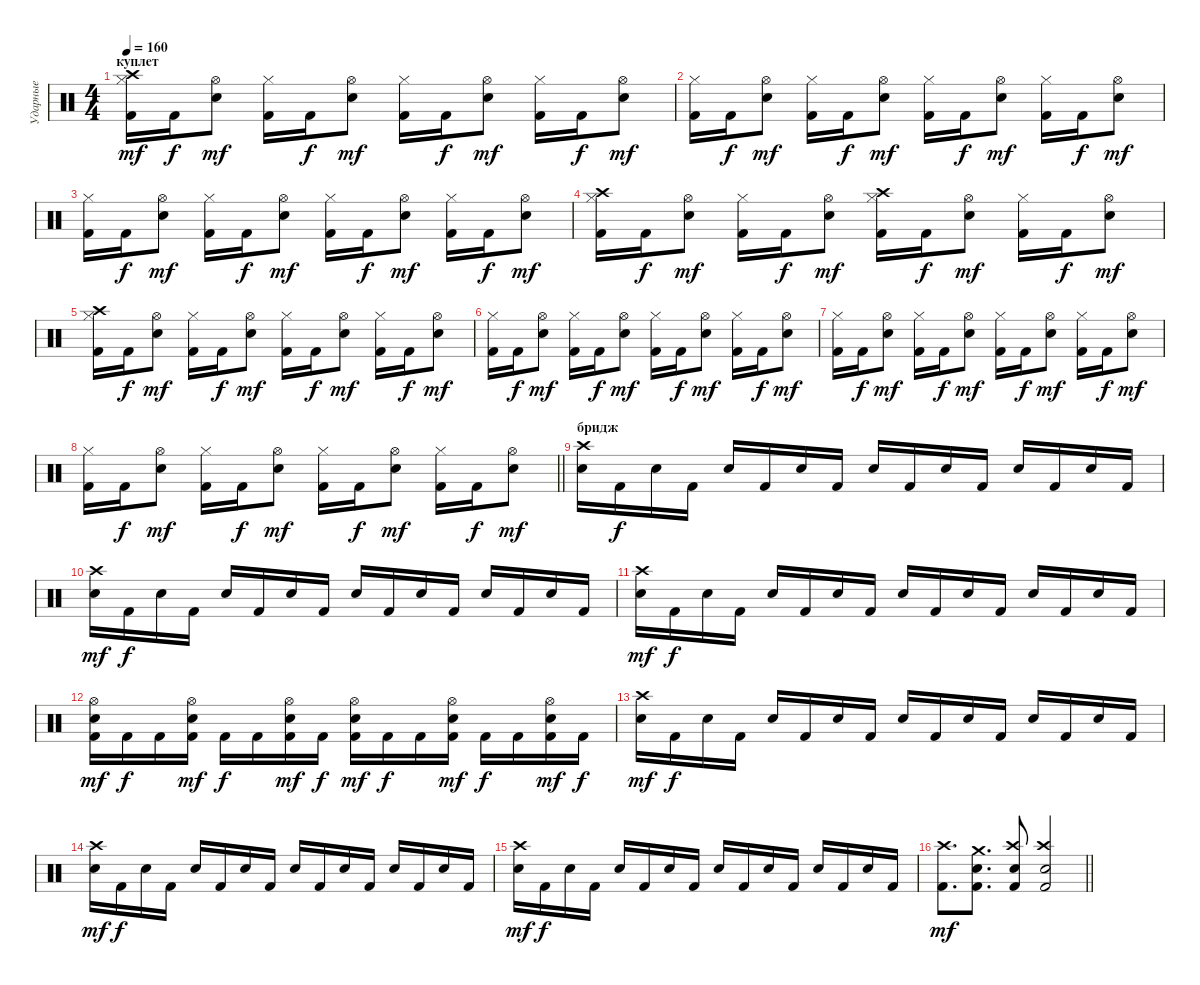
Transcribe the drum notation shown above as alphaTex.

\track ("Ударные" "Ударные") {instrument percussion}
\staff {score}
\articulation defaults
\ts (4 4)
\section ("" "куплет")
\tempo 160
\clef neutral
\ks c
("Kick (hit) 2" "Hi-Hat (closed)" "Crash high (hit)").16{dy mf} "Kick (hit) 2".16{dy f} ("Snare (hit) 2" "Hi-Hat (open)").8{dy mf} ("Kick (hit) 2" "Hi-Hat (closed)").16 "Kick (hit) 2".16{dy f} ("Snare (hit) 2" "Hi-Hat (open)").8{dy mf} ("Kick (hit) 2" "Hi-Hat (closed)").16 "Kick (hit) 2".16{dy f} ("Snare (hit) 2" "Hi-Hat (open)").8{dy mf} ("Kick (hit) 2" "Hi-Hat (closed)").16 "Kick (hit) 2".16{dy f} ("Snare (hit) 2" "Hi-Hat (open)").8{dy mf} |
("Kick (hit) 2" "Hi-Hat (closed)").16 "Kick (hit) 2".16{dy f} ("Snare (hit) 2" "Hi-Hat (open)").8{dy mf} ("Kick (hit) 2" "Hi-Hat (closed)").16 "Kick (hit) 2".16{dy f} ("Snare (hit) 2" "Hi-Hat (open)").8{dy mf} ("Kick (hit) 2" "Hi-Hat (closed)").16 "Kick (hit) 2".16{dy f} ("Snare (hit) 2" "Hi-Hat (open)").8{dy mf} ("Kick (hit) 2" "Hi-Hat (closed)").16 "Kick (hit) 2".16{dy f} ("Snare (hit) 2" "Hi-Hat (open)").8{dy mf} |
("Kick (hit) 2" "Hi-Hat (closed)").16 "Kick (hit) 2".16{dy f} ("Snare (hit) 2" "Hi-Hat (open)").8{dy mf} ("Kick (hit) 2" "Hi-Hat (closed)").16 "Kick (hit) 2".16{dy f} ("Snare (hit) 2" "Hi-Hat (open)").8{dy mf} ("Kick (hit) 2" "Hi-Hat (closed)").16 "Kick (hit) 2".16{dy f} ("Snare (hit) 2" "Hi-Hat (open)").8{dy mf} ("Kick (hit) 2" "Hi-Hat (closed)").16 "Kick (hit) 2".16{dy f} ("Snare (hit) 2" "Hi-Hat (open)").8{dy mf} |
("Kick (hit) 2" "Hi-Hat (closed)" "Crash high (hit)").16 "Kick (hit) 2".16{dy f} ("Snare (hit) 2" "Hi-Hat (open)").8{dy mf} ("Kick (hit) 2" "Hi-Hat (closed)").16 "Kick (hit) 2".16{dy f} ("Snare (hit) 2" "Hi-Hat (open)").8{dy mf} ("Kick (hit) 2" "Hi-Hat (closed)" "Crash high (hit)").16 "Kick (hit) 2".16{dy f} ("Snare (hit) 2" "Hi-Hat (open)").8{dy mf} ("Kick (hit) 2" "Hi-Hat (closed)").16 "Kick (hit) 2".16{dy f} ("Snare (hit) 2" "Hi-Hat (open)").8{dy mf} |
("Kick (hit) 2" "Hi-Hat (closed)" "Crash high (hit)").16 "Kick (hit) 2".16{dy f} ("Snare (hit) 2" "Hi-Hat (open)").8{dy mf} ("Kick (hit) 2" "Hi-Hat (closed)").16 "Kick (hit) 2".16{dy f} ("Snare (hit) 2" "Hi-Hat (open)").8{dy mf} ("Kick (hit) 2" "Hi-Hat (closed)").16 "Kick (hit) 2".16{dy f} ("Snare (hit) 2" "Hi-Hat (open)").8{dy mf} ("Kick (hit) 2" "Hi-Hat (closed)").16 "Kick (hit) 2".16{dy f} ("Snare (hit) 2" "Hi-Hat (open)").8{dy mf} |
("Kick (hit) 2" "Hi-Hat (closed)").16 "Kick (hit) 2".16{dy f} ("Snare (hit) 2" "Hi-Hat (open)").8{dy mf} ("Kick (hit) 2" "Hi-Hat (closed)").16 "Kick (hit) 2".16{dy f} ("Snare (hit) 2" "Hi-Hat (open)").8{dy mf} ("Kick (hit) 2" "Hi-Hat (closed)").16 "Kick (hit) 2".16{dy f} ("Snare (hit) 2" "Hi-Hat (open)").8{dy mf} ("Kick (hit) 2" "Hi-Hat (closed)").16 "Kick (hit) 2".16{dy f} ("Snare (hit) 2" "Hi-Hat (open)").8{dy mf} |
("Kick (hit) 2" "Hi-Hat (closed)").16 "Kick (hit) 2".16{dy f} ("Snare (hit) 2" "Hi-Hat (open)").8{dy mf} ("Kick (hit) 2" "Hi-Hat (closed)").16 "Kick (hit) 2".16{dy f} ("Snare (hit) 2" "Hi-Hat (open)").8{dy mf} ("Kick (hit) 2" "Hi-Hat (closed)").16 "Kick (hit) 2".16{dy f} ("Snare (hit) 2" "Hi-Hat (open)").8{dy mf} ("Kick (hit) 2" "Hi-Hat (closed)").16 "Kick (hit) 2".16{dy f} ("Snare (hit) 2" "Hi-Hat (open)").8{dy mf} |
\barLineRight lightlight
("Kick (hit) 2" "Hi-Hat (closed)").16 "Kick (hit) 2".16{dy f} ("Snare (hit) 2" "Hi-Hat (open)").8{dy mf} ("Kick (hit) 2" "Hi-Hat (closed)").16 "Kick (hit) 2".16{dy f} ("Snare (hit) 2" "Hi-Hat (open)").8{dy mf} ("Kick (hit) 2" "Hi-Hat (closed)").16 "Kick (hit) 2".16{dy f} ("Snare (hit) 2" "Hi-Hat (open)").8{dy mf} ("Kick (hit) 2" "Hi-Hat (closed)").16 "Kick (hit) 2".16{dy f} ("Snare (hit) 2" "Hi-Hat (open)").8{dy mf} |
\section ("" "бридж")
("Snare (hit) 2" "Crash high (hit)").16 "Kick (hit) 2".16{dy f} "Snare (hit) 2".16 "Kick (hit) 2".16 "Snare (hit) 2".16 "Kick (hit) 2".16 "Snare (hit) 2".16 "Kick (hit) 2".16 "Snare (hit) 2".16 "Kick (hit) 2".16 "Snare (hit) 2".16 "Kick (hit) 2".16 "Snare (hit) 2".16 "Kick (hit) 2".16 "Snare (hit) 2".16 "Kick (hit) 2".16 |
("Snare (hit) 2" "Crash high (hit)").16{dy mf} "Kick (hit) 2".16{dy f} "Snare (hit) 2".16 "Kick (hit) 2".16 "Snare (hit) 2".16 "Kick (hit) 2".16 "Snare (hit) 2".16 "Kick (hit) 2".16 "Snare (hit) 2".16 "Kick (hit) 2".16 "Snare (hit) 2".16 "Kick (hit) 2".16 "Snare (hit) 2".16 "Kick (hit) 2".16 "Snare (hit) 2".16 "Kick (hit) 2".16 |
("Snare (hit) 2" "Crash high (hit)").16{dy mf} "Kick (hit) 2".16{dy f} "Snare (hit) 2".16 "Kick (hit) 2".16 "Snare (hit) 2".16 "Kick (hit) 2".16 "Snare (hit) 2".16 "Kick (hit) 2".16 "Snare (hit) 2".16 "Kick (hit) 2".16 "Snare (hit) 2".16 "Kick (hit) 2".16 "Snare (hit) 2".16 "Kick (hit) 2".16 "Snare (hit) 2".16 "Kick (hit) 2".16 |
("Kick (hit) 2" "Snare (hit) 2" "Hi-Hat (open)").16{dy mf} "Kick (hit) 2".16{dy f} "Kick (hit) 2".16 ("Kick (hit) 2" "Snare (hit) 2" "Hi-Hat (open)").16{dy mf} "Kick (hit) 2".16{dy f} "Kick (hit) 2".16 ("Kick (hit) 2" "Snare (hit) 2" "Hi-Hat (open)").16{dy mf} "Kick (hit) 2".16{dy f} ("Kick (hit) 2" "Snare (hit) 2" "Hi-Hat (open)").16{dy mf} "Kick (hit) 2".16{dy f} "Kick (hit) 2".16 ("Kick (hit) 2" "Snare (hit) 2" "Hi-Hat (open)").16{dy mf} "Kick (hit) 2".16{dy f} "Kick (hit) 2".16 ("Kick (hit) 2" "Snare (hit) 2" "Hi-Hat (open)").16{dy mf} "Kick (hit) 2".16{dy f} |
("Snare (hit) 2" "Crash high (hit)").16{dy mf} "Kick (hit) 2".16{dy f} "Snare (hit) 2".16 "Kick (hit) 2".16 "Snare (hit) 2".16 "Kick (hit) 2".16 "Snare (hit) 2".16 "Kick (hit) 2".16 "Snare (hit) 2".16 "Kick (hit) 2".16 "Snare (hit) 2".16 "Kick (hit) 2".16 "Snare (hit) 2".16 "Kick (hit) 2".16 "Snare (hit) 2".16 "Kick (hit) 2".16 |
("Snare (hit) 2" "Crash high (hit)").16{dy mf} "Kick (hit) 2".16{dy f} "Snare (hit) 2".16 "Kick (hit) 2".16 "Snare (hit) 2".16 "Kick (hit) 2".16 "Snare (hit) 2".16 "Kick (hit) 2".16 "Snare (hit) 2".16 "Kick (hit) 2".16 "Snare (hit) 2".16 "Kick (hit) 2".16 "Snare (hit) 2".16 "Kick (hit) 2".16 "Snare (hit) 2".16 "Kick (hit) 2".16 |
("Snare (hit) 2" "Crash high (hit)").16{dy mf} "Kick (hit) 2".16{dy f} "Snare (hit) 2".16 "Kick (hit) 2".16 "Snare (hit) 2".16 "Kick (hit) 2".16 "Snare (hit) 2".16 "Kick (hit) 2".16 "Snare (hit) 2".16 "Kick (hit) 2".16 "Snare (hit) 2".16 "Kick (hit) 2".16 "Snare (hit) 2".16 "Kick (hit) 2".16 "Snare (hit) 2".16 "Kick (hit) 2".16 |
\barLineRight lightlight
("Kick (hit) 2" "Crash high (hit)").8{d dy mf} ("Kick (hit) 2" "Electric Snare (hit)" "Crash medium (hit)").8{d} ("Kick (hit) 2" "Electric Snare (hit)" "Crash high (hit)").8 ("Kick (hit) 2" "Electric Snare (hit)" "Crash high (hit)").2
